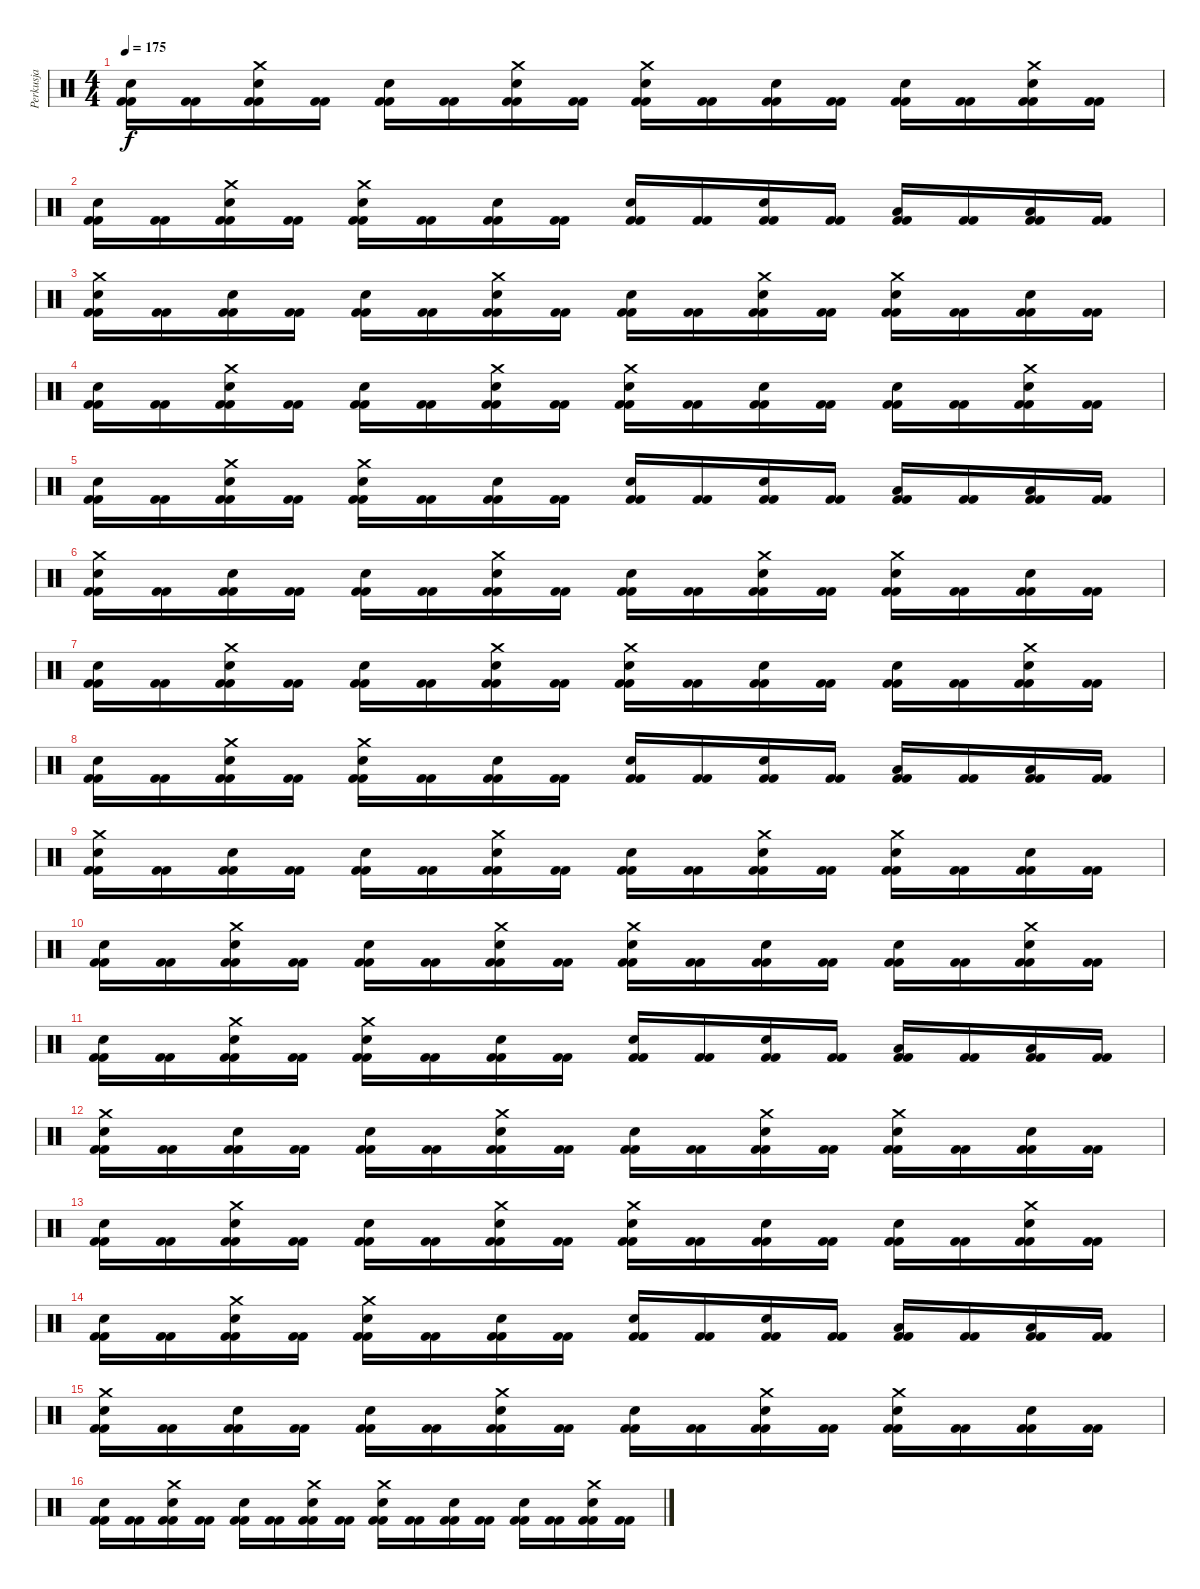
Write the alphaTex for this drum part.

\track ("Perkusja" "Perkusja") {instrument percussion}
\staff {score}
\articulation defaults
\ts (4 4)
\tempo 175
\clef neutral
\ks c
("Snare (hit) 2" "Kick (hit) 2" "Kick (hit) 2").16{dy f} ("Kick (hit) 2" "Kick (hit) 2").16 ("Crash medium (hit)" "Snare (hit) 2" "Kick (hit) 2" "Kick (hit) 2").16 ("Kick (hit) 2" "Kick (hit) 2").16 ("Snare (hit) 2" "Kick (hit) 2" "Kick (hit) 2").16 ("Kick (hit) 2" "Kick (hit) 2").16 ("Crash medium (hit)" "Snare (hit) 2" "Kick (hit) 2" "Kick (hit) 2").16 ("Kick (hit) 2" "Kick (hit) 2").16 ("Crash medium (hit)" "Snare (hit) 2" "Kick (hit) 2" "Kick (hit) 2").16 ("Kick (hit) 2" "Kick (hit) 2").16 ("Snare (hit) 2" "Kick (hit) 2" "Kick (hit) 2").16 ("Kick (hit) 2" "Kick (hit) 2").16 ("Snare (hit) 2" "Kick (hit) 2" "Kick (hit) 2").16 ("Kick (hit) 2" "Kick (hit) 2").16 ("Crash medium (hit)" "Snare (hit) 2" "Kick (hit) 2" "Kick (hit) 2").16 ("Kick (hit) 2" "Kick (hit) 2").16 |
("Snare (hit) 2" "Kick (hit) 2" "Kick (hit) 2").16 ("Kick (hit) 2" "Kick (hit) 2").16 ("Crash medium (hit)" "Snare (hit) 2" "Kick (hit) 2" "Kick (hit) 2").16 ("Kick (hit) 2" "Kick (hit) 2").16 ("Crash medium (hit)" "Snare (hit) 2" "Kick (hit) 2" "Kick (hit) 2").16 ("Kick (hit) 2" "Kick (hit) 2").16 ("Snare (hit) 2" "Kick (hit) 2" "Kick (hit) 2").16 ("Kick (hit) 2" "Kick (hit) 2").16 ("Electric Snare (hit)" "Kick (hit) 2" "Kick (hit) 2").16 ("Kick (hit) 2" "Kick (hit) 2").16 ("Electric Snare (hit)" "Kick (hit) 2" "Kick (hit) 2").16 ("Kick (hit) 2" "Kick (hit) 2").16 ("Low Tom (hit)" "Kick (hit) 2" "Kick (hit) 2").16 ("Kick (hit) 2" "Kick (hit) 2").16 ("Low Tom (hit)" "Kick (hit) 2" "Kick (hit) 2").16 ("Kick (hit) 2" "Kick (hit) 2").16 |
("Crash medium (hit)" "Snare (hit) 2" "Kick (hit) 2" "Kick (hit) 2").16 ("Kick (hit) 2" "Kick (hit) 2").16 ("Snare (hit) 2" "Kick (hit) 2" "Kick (hit) 2").16 ("Kick (hit) 2" "Kick (hit) 2").16 ("Snare (hit) 2" "Kick (hit) 2" "Kick (hit) 2").16 ("Kick (hit) 2" "Kick (hit) 2").16 ("Crash medium (hit)" "Snare (hit) 2" "Kick (hit) 2" "Kick (hit) 2").16 ("Kick (hit) 2" "Kick (hit) 2").16 ("Snare (hit) 2" "Kick (hit) 2" "Kick (hit) 2").16 ("Kick (hit) 2" "Kick (hit) 2").16 ("Crash medium (hit)" "Snare (hit) 2" "Kick (hit) 2" "Kick (hit) 2").16 ("Kick (hit) 2" "Kick (hit) 2").16 ("Crash medium (hit)" "Snare (hit) 2" "Kick (hit) 2" "Kick (hit) 2").16 ("Kick (hit) 2" "Kick (hit) 2").16 ("Snare (hit) 2" "Kick (hit) 2" "Kick (hit) 2").16 ("Kick (hit) 2" "Kick (hit) 2").16 |
("Snare (hit) 2" "Kick (hit) 2" "Kick (hit) 2").16 ("Kick (hit) 2" "Kick (hit) 2").16 ("Crash medium (hit)" "Snare (hit) 2" "Kick (hit) 2" "Kick (hit) 2").16 ("Kick (hit) 2" "Kick (hit) 2").16 ("Snare (hit) 2" "Kick (hit) 2" "Kick (hit) 2").16 ("Kick (hit) 2" "Kick (hit) 2").16 ("Crash medium (hit)" "Snare (hit) 2" "Kick (hit) 2" "Kick (hit) 2").16 ("Kick (hit) 2" "Kick (hit) 2").16 ("Crash medium (hit)" "Snare (hit) 2" "Kick (hit) 2" "Kick (hit) 2").16 ("Kick (hit) 2" "Kick (hit) 2").16 ("Snare (hit) 2" "Kick (hit) 2" "Kick (hit) 2").16 ("Kick (hit) 2" "Kick (hit) 2").16 ("Snare (hit) 2" "Kick (hit) 2" "Kick (hit) 2").16 ("Kick (hit) 2" "Kick (hit) 2").16 ("Crash medium (hit)" "Snare (hit) 2" "Kick (hit) 2" "Kick (hit) 2").16 ("Kick (hit) 2" "Kick (hit) 2").16 |
("Snare (hit) 2" "Kick (hit) 2" "Kick (hit) 2").16 ("Kick (hit) 2" "Kick (hit) 2").16 ("Crash medium (hit)" "Snare (hit) 2" "Kick (hit) 2" "Kick (hit) 2").16 ("Kick (hit) 2" "Kick (hit) 2").16 ("Crash medium (hit)" "Snare (hit) 2" "Kick (hit) 2" "Kick (hit) 2").16 ("Kick (hit) 2" "Kick (hit) 2").16 ("Snare (hit) 2" "Kick (hit) 2" "Kick (hit) 2").16 ("Kick (hit) 2" "Kick (hit) 2").16 ("Electric Snare (hit)" "Kick (hit) 2" "Kick (hit) 2").16 ("Kick (hit) 2" "Kick (hit) 2").16 ("Electric Snare (hit)" "Kick (hit) 2" "Kick (hit) 2").16 ("Kick (hit) 2" "Kick (hit) 2").16 ("Low Tom (hit)" "Kick (hit) 2" "Kick (hit) 2").16 ("Kick (hit) 2" "Kick (hit) 2").16 ("Low Tom (hit)" "Kick (hit) 2" "Kick (hit) 2").16 ("Kick (hit) 2" "Kick (hit) 2").16 |
("Crash medium (hit)" "Snare (hit) 2" "Kick (hit) 2" "Kick (hit) 2").16 ("Kick (hit) 2" "Kick (hit) 2").16 ("Snare (hit) 2" "Kick (hit) 2" "Kick (hit) 2").16 ("Kick (hit) 2" "Kick (hit) 2").16 ("Snare (hit) 2" "Kick (hit) 2" "Kick (hit) 2").16 ("Kick (hit) 2" "Kick (hit) 2").16 ("Crash medium (hit)" "Snare (hit) 2" "Kick (hit) 2" "Kick (hit) 2").16 ("Kick (hit) 2" "Kick (hit) 2").16 ("Snare (hit) 2" "Kick (hit) 2" "Kick (hit) 2").16 ("Kick (hit) 2" "Kick (hit) 2").16 ("Crash medium (hit)" "Snare (hit) 2" "Kick (hit) 2" "Kick (hit) 2").16 ("Kick (hit) 2" "Kick (hit) 2").16 ("Crash medium (hit)" "Snare (hit) 2" "Kick (hit) 2" "Kick (hit) 2").16 ("Kick (hit) 2" "Kick (hit) 2").16 ("Snare (hit) 2" "Kick (hit) 2" "Kick (hit) 2").16 ("Kick (hit) 2" "Kick (hit) 2").16 |
("Snare (hit) 2" "Kick (hit) 2" "Kick (hit) 2").16 ("Kick (hit) 2" "Kick (hit) 2").16 ("Crash medium (hit)" "Snare (hit) 2" "Kick (hit) 2" "Kick (hit) 2").16 ("Kick (hit) 2" "Kick (hit) 2").16 ("Snare (hit) 2" "Kick (hit) 2" "Kick (hit) 2").16 ("Kick (hit) 2" "Kick (hit) 2").16 ("Crash medium (hit)" "Snare (hit) 2" "Kick (hit) 2" "Kick (hit) 2").16 ("Kick (hit) 2" "Kick (hit) 2").16 ("Crash medium (hit)" "Snare (hit) 2" "Kick (hit) 2" "Kick (hit) 2").16 ("Kick (hit) 2" "Kick (hit) 2").16 ("Snare (hit) 2" "Kick (hit) 2" "Kick (hit) 2").16 ("Kick (hit) 2" "Kick (hit) 2").16 ("Snare (hit) 2" "Kick (hit) 2" "Kick (hit) 2").16 ("Kick (hit) 2" "Kick (hit) 2").16 ("Crash medium (hit)" "Snare (hit) 2" "Kick (hit) 2" "Kick (hit) 2").16 ("Kick (hit) 2" "Kick (hit) 2").16 |
("Snare (hit) 2" "Kick (hit) 2" "Kick (hit) 2").16 ("Kick (hit) 2" "Kick (hit) 2").16 ("Crash medium (hit)" "Snare (hit) 2" "Kick (hit) 2" "Kick (hit) 2").16 ("Kick (hit) 2" "Kick (hit) 2").16 ("Crash medium (hit)" "Snare (hit) 2" "Kick (hit) 2" "Kick (hit) 2").16 ("Kick (hit) 2" "Kick (hit) 2").16 ("Snare (hit) 2" "Kick (hit) 2" "Kick (hit) 2").16 ("Kick (hit) 2" "Kick (hit) 2").16 ("Electric Snare (hit)" "Kick (hit) 2" "Kick (hit) 2").16 ("Kick (hit) 2" "Kick (hit) 2").16 ("Electric Snare (hit)" "Kick (hit) 2" "Kick (hit) 2").16 ("Kick (hit) 2" "Kick (hit) 2").16 ("Low Tom (hit)" "Kick (hit) 2" "Kick (hit) 2").16 ("Kick (hit) 2" "Kick (hit) 2").16 ("Low Tom (hit)" "Kick (hit) 2" "Kick (hit) 2").16 ("Kick (hit) 2" "Kick (hit) 2").16 |
("Crash medium (hit)" "Snare (hit) 2" "Kick (hit) 2" "Kick (hit) 2").16 ("Kick (hit) 2" "Kick (hit) 2").16 ("Snare (hit) 2" "Kick (hit) 2" "Kick (hit) 2").16 ("Kick (hit) 2" "Kick (hit) 2").16 ("Snare (hit) 2" "Kick (hit) 2" "Kick (hit) 2").16 ("Kick (hit) 2" "Kick (hit) 2").16 ("Crash medium (hit)" "Snare (hit) 2" "Kick (hit) 2" "Kick (hit) 2").16 ("Kick (hit) 2" "Kick (hit) 2").16 ("Snare (hit) 2" "Kick (hit) 2" "Kick (hit) 2").16 ("Kick (hit) 2" "Kick (hit) 2").16 ("Crash medium (hit)" "Snare (hit) 2" "Kick (hit) 2" "Kick (hit) 2").16 ("Kick (hit) 2" "Kick (hit) 2").16 ("Crash medium (hit)" "Snare (hit) 2" "Kick (hit) 2" "Kick (hit) 2").16 ("Kick (hit) 2" "Kick (hit) 2").16 ("Snare (hit) 2" "Kick (hit) 2" "Kick (hit) 2").16 ("Kick (hit) 2" "Kick (hit) 2").16 |
("Snare (hit) 2" "Kick (hit) 2" "Kick (hit) 2").16 ("Kick (hit) 2" "Kick (hit) 2").16 ("Crash medium (hit)" "Snare (hit) 2" "Kick (hit) 2" "Kick (hit) 2").16 ("Kick (hit) 2" "Kick (hit) 2").16 ("Snare (hit) 2" "Kick (hit) 2" "Kick (hit) 2").16 ("Kick (hit) 2" "Kick (hit) 2").16 ("Crash medium (hit)" "Snare (hit) 2" "Kick (hit) 2" "Kick (hit) 2").16 ("Kick (hit) 2" "Kick (hit) 2").16 ("Crash medium (hit)" "Snare (hit) 2" "Kick (hit) 2" "Kick (hit) 2").16 ("Kick (hit) 2" "Kick (hit) 2").16 ("Snare (hit) 2" "Kick (hit) 2" "Kick (hit) 2").16 ("Kick (hit) 2" "Kick (hit) 2").16 ("Snare (hit) 2" "Kick (hit) 2" "Kick (hit) 2").16 ("Kick (hit) 2" "Kick (hit) 2").16 ("Crash medium (hit)" "Snare (hit) 2" "Kick (hit) 2" "Kick (hit) 2").16 ("Kick (hit) 2" "Kick (hit) 2").16 |
("Snare (hit) 2" "Kick (hit) 2" "Kick (hit) 2").16 ("Kick (hit) 2" "Kick (hit) 2").16 ("Crash medium (hit)" "Snare (hit) 2" "Kick (hit) 2" "Kick (hit) 2").16 ("Kick (hit) 2" "Kick (hit) 2").16 ("Crash medium (hit)" "Snare (hit) 2" "Kick (hit) 2" "Kick (hit) 2").16 ("Kick (hit) 2" "Kick (hit) 2").16 ("Snare (hit) 2" "Kick (hit) 2" "Kick (hit) 2").16 ("Kick (hit) 2" "Kick (hit) 2").16 ("Electric Snare (hit)" "Kick (hit) 2" "Kick (hit) 2").16 ("Kick (hit) 2" "Kick (hit) 2").16 ("Electric Snare (hit)" "Kick (hit) 2" "Kick (hit) 2").16 ("Kick (hit) 2" "Kick (hit) 2").16 ("Low Tom (hit)" "Kick (hit) 2" "Kick (hit) 2").16 ("Kick (hit) 2" "Kick (hit) 2").16 ("Low Tom (hit)" "Kick (hit) 2" "Kick (hit) 2").16 ("Kick (hit) 2" "Kick (hit) 2").16 |
("Crash medium (hit)" "Snare (hit) 2" "Kick (hit) 2" "Kick (hit) 2").16 ("Kick (hit) 2" "Kick (hit) 2").16 ("Snare (hit) 2" "Kick (hit) 2" "Kick (hit) 2").16 ("Kick (hit) 2" "Kick (hit) 2").16 ("Snare (hit) 2" "Kick (hit) 2" "Kick (hit) 2").16 ("Kick (hit) 2" "Kick (hit) 2").16 ("Crash medium (hit)" "Snare (hit) 2" "Kick (hit) 2" "Kick (hit) 2").16 ("Kick (hit) 2" "Kick (hit) 2").16 ("Snare (hit) 2" "Kick (hit) 2" "Kick (hit) 2").16 ("Kick (hit) 2" "Kick (hit) 2").16 ("Crash medium (hit)" "Snare (hit) 2" "Kick (hit) 2" "Kick (hit) 2").16 ("Kick (hit) 2" "Kick (hit) 2").16 ("Crash medium (hit)" "Snare (hit) 2" "Kick (hit) 2" "Kick (hit) 2").16 ("Kick (hit) 2" "Kick (hit) 2").16 ("Snare (hit) 2" "Kick (hit) 2" "Kick (hit) 2").16 ("Kick (hit) 2" "Kick (hit) 2").16 |
("Snare (hit) 2" "Kick (hit) 2" "Kick (hit) 2").16 ("Kick (hit) 2" "Kick (hit) 2").16 ("Crash medium (hit)" "Snare (hit) 2" "Kick (hit) 2" "Kick (hit) 2").16 ("Kick (hit) 2" "Kick (hit) 2").16 ("Snare (hit) 2" "Kick (hit) 2" "Kick (hit) 2").16 ("Kick (hit) 2" "Kick (hit) 2").16 ("Crash medium (hit)" "Snare (hit) 2" "Kick (hit) 2" "Kick (hit) 2").16 ("Kick (hit) 2" "Kick (hit) 2").16 ("Crash medium (hit)" "Snare (hit) 2" "Kick (hit) 2" "Kick (hit) 2").16 ("Kick (hit) 2" "Kick (hit) 2").16 ("Snare (hit) 2" "Kick (hit) 2" "Kick (hit) 2").16 ("Kick (hit) 2" "Kick (hit) 2").16 ("Snare (hit) 2" "Kick (hit) 2" "Kick (hit) 2").16 ("Kick (hit) 2" "Kick (hit) 2").16 ("Crash medium (hit)" "Snare (hit) 2" "Kick (hit) 2" "Kick (hit) 2").16 ("Kick (hit) 2" "Kick (hit) 2").16 |
("Snare (hit) 2" "Kick (hit) 2" "Kick (hit) 2").16 ("Kick (hit) 2" "Kick (hit) 2").16 ("Crash medium (hit)" "Snare (hit) 2" "Kick (hit) 2" "Kick (hit) 2").16 ("Kick (hit) 2" "Kick (hit) 2").16 ("Crash medium (hit)" "Snare (hit) 2" "Kick (hit) 2" "Kick (hit) 2").16 ("Kick (hit) 2" "Kick (hit) 2").16 ("Snare (hit) 2" "Kick (hit) 2" "Kick (hit) 2").16 ("Kick (hit) 2" "Kick (hit) 2").16 ("Electric Snare (hit)" "Kick (hit) 2" "Kick (hit) 2").16 ("Kick (hit) 2" "Kick (hit) 2").16 ("Electric Snare (hit)" "Kick (hit) 2" "Kick (hit) 2").16 ("Kick (hit) 2" "Kick (hit) 2").16 ("Low Tom (hit)" "Kick (hit) 2" "Kick (hit) 2").16 ("Kick (hit) 2" "Kick (hit) 2").16 ("Low Tom (hit)" "Kick (hit) 2" "Kick (hit) 2").16 ("Kick (hit) 2" "Kick (hit) 2").16 |
("Crash medium (hit)" "Snare (hit) 2" "Kick (hit) 2" "Kick (hit) 2").16 ("Kick (hit) 2" "Kick (hit) 2").16 ("Snare (hit) 2" "Kick (hit) 2" "Kick (hit) 2").16 ("Kick (hit) 2" "Kick (hit) 2").16 ("Snare (hit) 2" "Kick (hit) 2" "Kick (hit) 2").16 ("Kick (hit) 2" "Kick (hit) 2").16 ("Crash medium (hit)" "Snare (hit) 2" "Kick (hit) 2" "Kick (hit) 2").16 ("Kick (hit) 2" "Kick (hit) 2").16 ("Snare (hit) 2" "Kick (hit) 2" "Kick (hit) 2").16 ("Kick (hit) 2" "Kick (hit) 2").16 ("Crash medium (hit)" "Snare (hit) 2" "Kick (hit) 2" "Kick (hit) 2").16 ("Kick (hit) 2" "Kick (hit) 2").16 ("Crash medium (hit)" "Snare (hit) 2" "Kick (hit) 2" "Kick (hit) 2").16 ("Kick (hit) 2" "Kick (hit) 2").16 ("Snare (hit) 2" "Kick (hit) 2" "Kick (hit) 2").16 ("Kick (hit) 2" "Kick (hit) 2").16 |
("Snare (hit) 2" "Kick (hit) 2" "Kick (hit) 2").16 ("Kick (hit) 2" "Kick (hit) 2").16 ("Crash medium (hit)" "Snare (hit) 2" "Kick (hit) 2" "Kick (hit) 2").16 ("Kick (hit) 2" "Kick (hit) 2").16 ("Snare (hit) 2" "Kick (hit) 2" "Kick (hit) 2").16 ("Kick (hit) 2" "Kick (hit) 2").16 ("Crash medium (hit)" "Snare (hit) 2" "Kick (hit) 2" "Kick (hit) 2").16 ("Kick (hit) 2" "Kick (hit) 2").16 ("Crash medium (hit)" "Snare (hit) 2" "Kick (hit) 2" "Kick (hit) 2").16 ("Kick (hit) 2" "Kick (hit) 2").16 ("Snare (hit) 2" "Kick (hit) 2" "Kick (hit) 2").16 ("Kick (hit) 2" "Kick (hit) 2").16 ("Snare (hit) 2" "Kick (hit) 2" "Kick (hit) 2").16 ("Kick (hit) 2" "Kick (hit) 2").16 ("Crash medium (hit)" "Snare (hit) 2" "Kick (hit) 2" "Kick (hit) 2").16 ("Kick (hit) 2" "Kick (hit) 2").16
